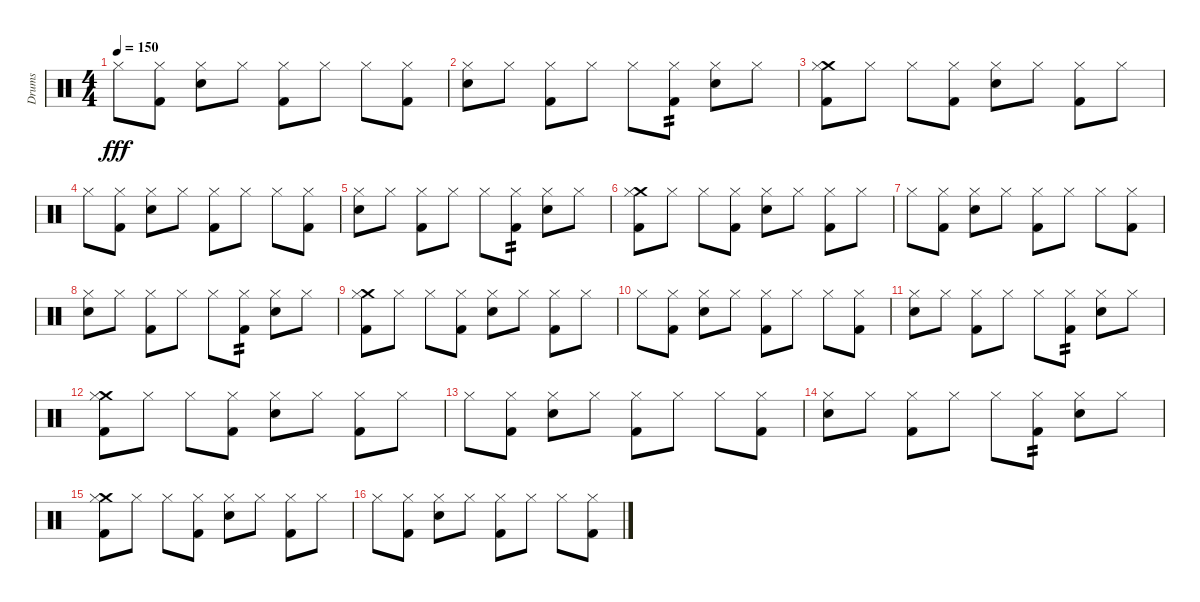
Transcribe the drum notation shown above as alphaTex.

\track ("Drums" "Drums") {instrument percussion}
\staff {score}
\articulation defaults
\ts (4 4)
\tempo 150
\clef neutral
\ks c "Hi-Hat (closed)".8{dy fff}
("Hi-Hat (closed)" "Kick (hit) 2").8 ("Hi-Hat (closed)" "Electric Snare (hit)").8 "Hi-Hat (closed)".8 ("Hi-Hat (closed)" "Kick (hit) 2").8 "Hi-Hat (closed)".8 "Hi-Hat (closed)".8 ("Hi-Hat (closed)" "Kick (hit) 2").8 |
("Hi-Hat (closed)" "Electric Snare (hit)").8 "Hi-Hat (closed)".8 ("Hi-Hat (closed)" "Kick (hit) 2").8 "Hi-Hat (closed)".8 "Hi-Hat (closed)".8 ("Hi-Hat (closed)" "Kick (hit) 2").8{tp 2} ("Hi-Hat (closed)" "Electric Snare (hit)").8 "Hi-Hat (closed)".8 |
("Crash medium (hit)" "Hi-Hat (closed)" "Kick (hit) 2").8 "Hi-Hat (closed)".8 "Hi-Hat (closed)".8 ("Hi-Hat (closed)" "Kick (hit) 2").8 ("Hi-Hat (closed)" "Electric Snare (hit)").8 "Hi-Hat (closed)".8 ("Hi-Hat (closed)" "Kick (hit) 2").8 "Hi-Hat (closed)".8 |
"Hi-Hat (closed)".8 ("Hi-Hat (closed)" "Kick (hit) 2").8 ("Hi-Hat (closed)" "Electric Snare (hit)").8 "Hi-Hat (closed)".8 ("Hi-Hat (closed)" "Kick (hit) 2").8 "Hi-Hat (closed)".8 "Hi-Hat (closed)".8 ("Hi-Hat (closed)" "Kick (hit) 2").8 |
("Hi-Hat (closed)" "Electric Snare (hit)").8 "Hi-Hat (closed)".8 ("Hi-Hat (closed)" "Kick (hit) 2").8 "Hi-Hat (closed)".8 "Hi-Hat (closed)".8 ("Hi-Hat (closed)" "Kick (hit) 2").8{tp 2} ("Hi-Hat (closed)" "Electric Snare (hit)").8 "Hi-Hat (closed)".8 |
("Crash medium (hit)" "Hi-Hat (closed)" "Kick (hit) 2").8 "Hi-Hat (closed)".8 "Hi-Hat (closed)".8 ("Hi-Hat (closed)" "Kick (hit) 2").8 ("Hi-Hat (closed)" "Electric Snare (hit)").8 "Hi-Hat (closed)".8 ("Hi-Hat (closed)" "Kick (hit) 2").8 "Hi-Hat (closed)".8 |
"Hi-Hat (closed)".8 ("Hi-Hat (closed)" "Kick (hit) 2").8 ("Hi-Hat (closed)" "Electric Snare (hit)").8 "Hi-Hat (closed)".8 ("Hi-Hat (closed)" "Kick (hit) 2").8 "Hi-Hat (closed)".8 "Hi-Hat (closed)".8 ("Hi-Hat (closed)" "Kick (hit) 2").8 |
("Hi-Hat (closed)" "Electric Snare (hit)").8 "Hi-Hat (closed)".8 ("Hi-Hat (closed)" "Kick (hit) 2").8 "Hi-Hat (closed)".8 "Hi-Hat (closed)".8 ("Hi-Hat (closed)" "Kick (hit) 2").8{tp 2} ("Hi-Hat (closed)" "Electric Snare (hit)").8 "Hi-Hat (closed)".8 |
("Crash medium (hit)" "Hi-Hat (closed)" "Kick (hit) 2").8 "Hi-Hat (closed)".8 "Hi-Hat (closed)".8 ("Hi-Hat (closed)" "Kick (hit) 2").8 ("Hi-Hat (closed)" "Electric Snare (hit)").8 "Hi-Hat (closed)".8 ("Hi-Hat (closed)" "Kick (hit) 2").8 "Hi-Hat (closed)".8 |
"Hi-Hat (closed)".8 ("Hi-Hat (closed)" "Kick (hit) 2").8 ("Hi-Hat (closed)" "Electric Snare (hit)").8 "Hi-Hat (closed)".8 ("Hi-Hat (closed)" "Kick (hit) 2").8 "Hi-Hat (closed)".8 "Hi-Hat (closed)".8 ("Hi-Hat (closed)" "Kick (hit) 2").8 |
("Hi-Hat (closed)" "Electric Snare (hit)").8 "Hi-Hat (closed)".8 ("Hi-Hat (closed)" "Kick (hit) 2").8 "Hi-Hat (closed)".8 "Hi-Hat (closed)".8 ("Hi-Hat (closed)" "Kick (hit) 2").8{tp 2} ("Hi-Hat (closed)" "Electric Snare (hit)").8 "Hi-Hat (closed)".8 |
("Crash medium (hit)" "Hi-Hat (closed)" "Kick (hit) 2").8 "Hi-Hat (closed)".8 "Hi-Hat (closed)".8 ("Hi-Hat (closed)" "Kick (hit) 2").8 ("Hi-Hat (closed)" "Electric Snare (hit)").8 "Hi-Hat (closed)".8 ("Hi-Hat (closed)" "Kick (hit) 2").8 "Hi-Hat (closed)".8 |
"Hi-Hat (closed)".8 ("Hi-Hat (closed)" "Kick (hit) 2").8 ("Hi-Hat (closed)" "Electric Snare (hit)").8 "Hi-Hat (closed)".8 ("Hi-Hat (closed)" "Kick (hit) 2").8 "Hi-Hat (closed)".8 "Hi-Hat (closed)".8 ("Hi-Hat (closed)" "Kick (hit) 2").8 |
("Hi-Hat (closed)" "Electric Snare (hit)").8 "Hi-Hat (closed)".8 ("Hi-Hat (closed)" "Kick (hit) 2").8 "Hi-Hat (closed)".8 "Hi-Hat (closed)".8 ("Hi-Hat (closed)" "Kick (hit) 2").8{tp 2} ("Hi-Hat (closed)" "Electric Snare (hit)").8 "Hi-Hat (closed)".8 |
("Crash medium (hit)" "Hi-Hat (closed)" "Kick (hit) 2").8 "Hi-Hat (closed)".8 "Hi-Hat (closed)".8 ("Hi-Hat (closed)" "Kick (hit) 2").8 ("Hi-Hat (closed)" "Electric Snare (hit)").8 "Hi-Hat (closed)".8 ("Hi-Hat (closed)" "Kick (hit) 2").8 "Hi-Hat (closed)".8 |
"Hi-Hat (closed)".8 ("Hi-Hat (closed)" "Kick (hit) 2").8 ("Hi-Hat (closed)" "Electric Snare (hit)").8 "Hi-Hat (closed)".8 ("Hi-Hat (closed)" "Kick (hit) 2").8 "Hi-Hat (closed)".8 "Hi-Hat (closed)".8 ("Hi-Hat (closed)" "Kick (hit) 2").8
